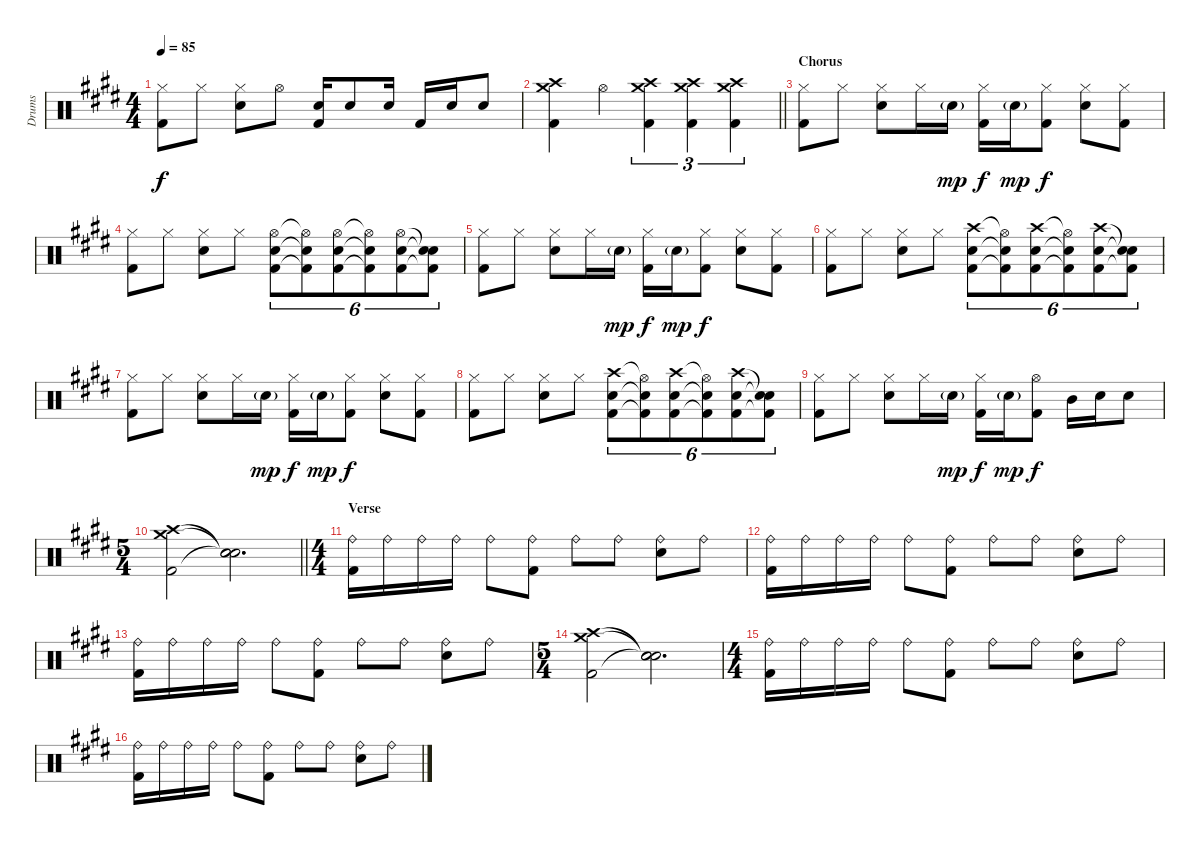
\track ("Drums" "Drums") {instrument percussion}
\staff {score}
\articulation defaults
\ts (4 4)
\tempo 85
\clef neutral
\ks e
("Hi-Hat (closed)" "Kick (hit) 2").8{dy f} "Hi-Hat (closed)".8 ("Hi-Hat (closed)" "Snare (hit) 2").8 "Hi-Hat (open)".8 ("Snare (hit) 2" "Kick (hit) 2").16 "Snare (hit) 2".8 "Snare (hit) 2".16 "Kick (hit) 2".16 "Snare (hit) 2".16 "Snare (hit) 2".8 |
\barLineRight lightlight
("Crash high (hit)" "Crash medium (hit)" "Kick (hit) 2").4 "Hi-Hat (open)".4 ("Crash high (hit)" "Crash medium (hit)" "Kick (hit) 2").4{tu (3 2)} ("Crash high (hit)" "Crash medium (hit)" "Kick (hit) 2").4{tu (3 2)} ("Crash high (hit)" "Crash medium (hit)" "Kick (hit) 2").4{tu (3 2)} |
\section ("" "Chorus")
("Hi-Hat (closed)" "Kick (hit) 2").8 "Hi-Hat (closed)".8 ("Hi-Hat (closed)" "Snare (hit) 2").8 "Hi-Hat (closed)".16 "Snare (hit) 2"{g}.16{dy mp} ("Hi-Hat (closed)" "Kick (hit) 2").16{dy f} "Snare (hit) 2"{g}.16{dy mp} ("Hi-Hat (closed)" "Kick (hit) 2").8{dy f} ("Hi-Hat (closed)" "Snare (hit) 2").8 ("Hi-Hat (closed)" "Kick (hit) 2").8 |
("Hi-Hat (closed)" "Kick (hit) 2").8 "Hi-Hat (closed)".8 ("Hi-Hat (closed)" "Snare (hit) 2").8 "Hi-Hat (closed)".8 ("Hi-Hat (open)" "Snare (hit) 2" "Kick (hit) 2").8{tu (6 4)} ("Hi-Hat (open)"{t} "Snare (hit) 2"{t} "Kick (hit) 2"{t}).8{tu (6 4)} ("Hi-Hat (open)" "Snare (hit) 2" "Kick (hit) 2").8{tu (6 4)} ("Hi-Hat (open)"{t} "Snare (hit) 2"{t} "Kick (hit) 2"{t}).8{tu (6 4)} ("Hi-Hat (open)" "Snare (hit) 2" "Kick (hit) 2").8{tu (6 4)} ("Snare (hit)"{t} "Snare (hit)"{t} "Kick (hit) 2"{t}).8{tu (6 4)} |
("Hi-Hat (closed)" "Kick (hit) 2").8 "Hi-Hat (closed)".8 ("Hi-Hat (closed)" "Snare (hit) 2").8 "Hi-Hat (closed)".16 "Snare (hit) 2"{g}.16{dy mp} ("Hi-Hat (closed)" "Kick (hit) 2").16{dy f} "Snare (hit) 2"{g}.16{dy mp} ("Hi-Hat (closed)" "Kick (hit) 2").8{dy f} ("Hi-Hat (closed)" "Snare (hit) 2").8 ("Hi-Hat (closed)" "Kick (hit) 2").8 |
("Hi-Hat (closed)" "Kick (hit) 2").8 "Hi-Hat (closed)".8 ("Hi-Hat (closed)" "Snare (hit) 2").8 "Hi-Hat (closed)".8 ("Crash high (hit)" "Snare (hit) 2" "Kick (hit) 2").8{tu (6 4)} ("Hi-Hat (open)"{t} "Snare (hit) 2"{t} "Kick (hit) 2"{t}).8{tu (6 4)} ("Crash high (hit)" "Snare (hit) 2" "Kick (hit) 2").8{tu (6 4)} ("Hi-Hat (open)"{t} "Snare (hit) 2"{t} "Kick (hit) 2"{t}).8{tu (6 4)} ("Crash high (hit)" "Snare (hit) 2" "Kick (hit) 2").8{tu (6 4)} ("Snare (hit)"{t} "Snare (hit)"{t} "Kick (hit) 2"{t}).8{tu (6 4)} |
("Hi-Hat (closed)" "Kick (hit) 2").8 "Hi-Hat (closed)".8 ("Hi-Hat (closed)" "Snare (hit) 2").8 "Hi-Hat (closed)".16 "Snare (hit) 2"{g}.16{dy mp} ("Hi-Hat (closed)" "Kick (hit) 2").16{dy f} "Snare (hit) 2"{g}.16{dy mp} ("Hi-Hat (closed)" "Kick (hit) 2").8{dy f} ("Hi-Hat (closed)" "Snare (hit) 2").8 ("Hi-Hat (closed)" "Kick (hit) 2").8 |
("Hi-Hat (closed)" "Kick (hit) 2").8 "Hi-Hat (closed)".8 ("Hi-Hat (closed)" "Snare (hit) 2").8 "Hi-Hat (closed)".8 ("Crash high (hit)" "Snare (hit) 2" "Kick (hit) 2").8{tu (6 4)} ("Hi-Hat (open)"{t} "Snare (hit) 2"{t} "Kick (hit) 2"{t}).8{tu (6 4)} ("Crash high (hit)" "Snare (hit) 2" "Kick (hit) 2").8{tu (6 4)} ("Hi-Hat (open)"{t} "Snare (hit) 2"{t} "Kick (hit) 2"{t}).8{tu (6 4)} ("Crash high (hit)" "Snare (hit) 2" "Kick (hit) 2").8{tu (6 4)} ("Snare (hit)"{t} "Snare (hit)"{t} "Kick (hit) 2"{t}).8{tu (6 4)} |
("Hi-Hat (closed)" "Kick (hit) 2").8 "Hi-Hat (closed)".8 ("Hi-Hat (closed)" "Snare (hit) 2").8 "Hi-Hat (closed)".16 "Snare (hit) 2"{g}.16{dy mp} ("Hi-Hat (closed)" "Kick (hit) 2").16{dy f} "Snare (hit) 2"{g}.16{dy mp} ("Hi-Hat (open)" "Kick (hit) 2").8{dy f} "Mid Tom (hit)".16 "Snare (hit) 2".16 "Snare (hit) 2".8 |
\ts (5 4)
\barLineRight lightlight
("Crash high (hit)" "Crash medium (hit)" "Kick (hit) 2").2 ("Snare (hit)"{t} "Snare (hit)"{t} "Snare (hit)"{t}).2{d} |
\ts (4 4)
\section ("" "Verse")
("Ride (bell)" "Kick (hit) 2").16 "Ride (bell)".16 "Ride (bell)".16 "Ride (bell)".16 "Ride (bell)".8 ("Ride (bell)" "Kick (hit) 2").8 "Ride (bell)".8 "Ride (bell)".8 ("Ride (bell)" "Snare (hit) 2").8 "Ride (bell)".8 |
("Ride (bell)" "Kick (hit) 2").16 "Ride (bell)".16 "Ride (bell)".16 "Ride (bell)".16 "Ride (bell)".8 ("Ride (bell)" "Kick (hit) 2").8 "Ride (bell)".8 "Ride (bell)".8 ("Ride (bell)" "Snare (hit) 2").8 "Ride (bell)".8 |
("Ride (bell)" "Kick (hit) 2").16 "Ride (bell)".16 "Ride (bell)".16 "Ride (bell)".16 "Ride (bell)".8 ("Ride (bell)" "Kick (hit) 2").8 "Ride (bell)".8 "Ride (bell)".8 ("Ride (bell)" "Snare (hit) 2").8 "Ride (bell)".8 |
\ts (5 4)
("Crash high (hit)" "Crash medium (hit)" "Kick (hit) 2").2 ("Snare (hit)"{t} "Snare (hit)"{t} "Snare (hit)"{t}).2{d} |
\ts (4 4)
("Ride (bell)" "Kick (hit) 2").16 "Ride (bell)".16 "Ride (bell)".16 "Ride (bell)".16 "Ride (bell)".8 ("Ride (bell)" "Kick (hit) 2").8 "Ride (bell)".8 "Ride (bell)".8 ("Ride (bell)" "Snare (hit) 2").8 "Ride (bell)".8 |
("Ride (bell)" "Kick (hit) 2").16 "Ride (bell)".16 "Ride (bell)".16 "Ride (bell)".16 "Ride (bell)".8 ("Ride (bell)" "Kick (hit) 2").8 "Ride (bell)".8 "Ride (bell)".8 ("Ride (bell)" "Snare (hit) 2").8 "Ride (bell)".8
